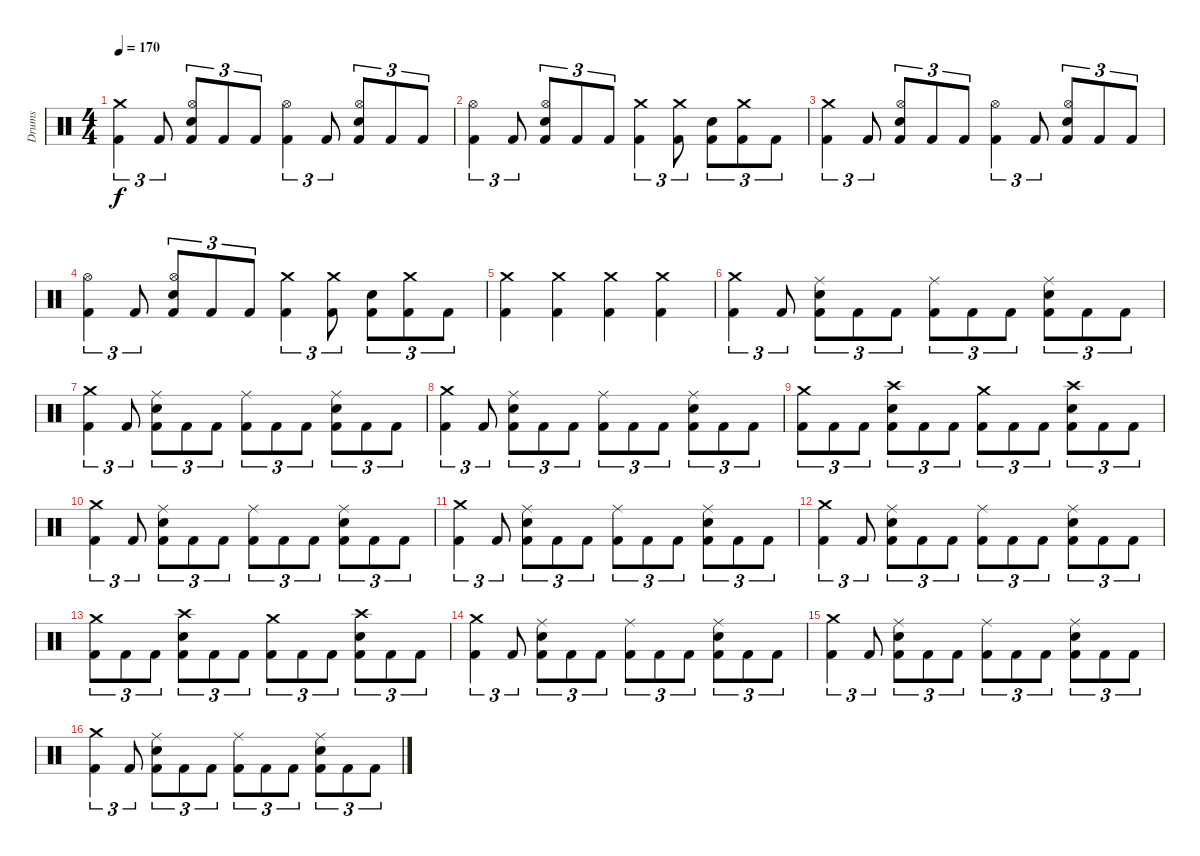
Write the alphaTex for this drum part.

\track ("Drums" "Drums") {instrument percussion}
\staff {score}
\articulation defaults
\ts (4 4)
\tempo 170
\clef neutral
\ks c
("Crash medium (hit)" "Kick (hit) 2").4{tu (3 2) dy f} "Kick (hit) 2".8{tu (3 2)} ("Hi-Hat (open)" "Snare (hit) 2" "Kick (hit) 2").8{tu (3 2)} "Kick (hit) 2".8{tu (3 2)} "Kick (hit) 2".8{tu (3 2)} ("Hi-Hat (open)" "Kick (hit) 2").4{tu (3 2)} "Kick (hit) 2".8{tu (3 2)} ("Hi-Hat (open)" "Snare (hit) 2" "Kick (hit) 2").8{tu (3 2)} "Kick (hit) 2".8{tu (3 2)} "Kick (hit) 2".8{tu (3 2)} |
("Hi-Hat (open)" "Kick (hit) 2").4{tu (3 2)} "Kick (hit) 2".8{tu (3 2)} ("Hi-Hat (open)" "Snare (hit) 2" "Kick (hit) 2").8{tu (3 2)} "Kick (hit) 2".8{tu (3 2)} "Kick (hit) 2".8{tu (3 2)} ("Crash medium (hit)" "Kick (hit) 2").4{tu (3 2)} ("Crash medium (hit)" "Kick (hit) 2").8{tu (3 2)} ("Snare (hit) 2" "Kick (hit) 2").8{tu (3 2)} ("Crash medium (hit)" "Kick (hit) 2").8{tu (3 2)} "Kick (hit) 2".8{tu (3 2)} |
("Crash medium (hit)" "Kick (hit) 2").4{tu (3 2)} "Kick (hit) 2".8{tu (3 2)} ("Hi-Hat (open)" "Snare (hit) 2" "Kick (hit) 2").8{tu (3 2)} "Kick (hit) 2".8{tu (3 2)} "Kick (hit) 2".8{tu (3 2)} ("Hi-Hat (open)" "Kick (hit) 2").4{tu (3 2)} "Kick (hit) 2".8{tu (3 2)} ("Hi-Hat (open)" "Snare (hit) 2" "Kick (hit) 2").8{tu (3 2)} "Kick (hit) 2".8{tu (3 2)} "Kick (hit) 2".8{tu (3 2)} |
("Hi-Hat (open)" "Kick (hit) 2").4{tu (3 2)} "Kick (hit) 2".8{tu (3 2)} ("Hi-Hat (open)" "Snare (hit) 2" "Kick (hit) 2").8{tu (3 2)} "Kick (hit) 2".8{tu (3 2)} "Kick (hit) 2".8{tu (3 2)} ("Crash medium (hit)" "Kick (hit) 2").4{tu (3 2)} ("Crash medium (hit)" "Kick (hit) 2").8{tu (3 2)} ("Snare (hit) 2" "Kick (hit) 2").8{tu (3 2)} ("Crash medium (hit)" "Kick (hit) 2").8{tu (3 2)} "Kick (hit) 2".8{tu (3 2)} |
("Crash medium (hit)" "Kick (hit) 2").4 ("Crash medium (hit)" "Kick (hit) 2").4 ("Crash medium (hit)" "Kick (hit) 2").4 ("Crash medium (hit)" "Kick (hit) 2").4 |
("Crash medium (hit)" "Kick (hit) 2").4{tu (3 2)} "Kick (hit) 2".8{tu (3 2)} ("Ride (middle)" "Snare (hit) 2" "Kick (hit) 2").8{tu (3 2)} "Kick (hit) 2".8{tu (3 2)} "Kick (hit) 2".8{tu (3 2)} ("Ride (middle)" "Kick (hit) 2").8{tu (3 2)} "Kick (hit) 2".8{tu (3 2)} "Kick (hit) 2".8{tu (3 2)} ("Ride (middle)" "Snare (hit) 2" "Kick (hit) 2").8{tu (3 2)} "Kick (hit) 2".8{tu (3 2)} "Kick (hit) 2".8{tu (3 2)} |
("Crash medium (hit)" "Kick (hit) 2").4{tu (3 2)} "Kick (hit) 2".8{tu (3 2)} ("Ride (middle)" "Snare (hit) 2" "Kick (hit) 2").8{tu (3 2)} "Kick (hit) 2".8{tu (3 2)} "Kick (hit) 2".8{tu (3 2)} ("Ride (middle)" "Kick (hit) 2").8{tu (3 2)} "Kick (hit) 2".8{tu (3 2)} "Kick (hit) 2".8{tu (3 2)} ("Ride (middle)" "Snare (hit) 2" "Kick (hit) 2").8{tu (3 2)} "Kick (hit) 2".8{tu (3 2)} "Kick (hit) 2".8{tu (3 2)} |
("Crash medium (hit)" "Kick (hit) 2").4{tu (3 2)} "Kick (hit) 2".8{tu (3 2)} ("Ride (middle)" "Snare (hit) 2" "Kick (hit) 2").8{tu (3 2)} "Kick (hit) 2".8{tu (3 2)} "Kick (hit) 2".8{tu (3 2)} ("Ride (middle)" "Kick (hit) 2").8{tu (3 2)} "Kick (hit) 2".8{tu (3 2)} "Kick (hit) 2".8{tu (3 2)} ("Ride (middle)" "Snare (hit) 2" "Kick (hit) 2").8{tu (3 2)} "Kick (hit) 2".8{tu (3 2)} "Kick (hit) 2".8{tu (3 2)} |
("Crash medium (hit)" "Kick (hit) 2").8{tu (3 2)} "Kick (hit) 2".8{tu (3 2)} "Kick (hit) 2".8{tu (3 2)} ("Crash high (hit)" "Snare (hit) 2" "Kick (hit) 2").8{tu (3 2)} "Kick (hit) 2".8{tu (3 2)} "Kick (hit) 2".8{tu (3 2)} ("Crash medium (hit)" "Kick (hit) 2").8{tu (3 2)} "Kick (hit) 2".8{tu (3 2)} "Kick (hit) 2".8{tu (3 2)} ("Crash high (hit)" "Snare (hit) 2" "Kick (hit) 2").8{tu (3 2)} "Kick (hit) 2".8{tu (3 2)} "Kick (hit) 2".8{tu (3 2)} |
("Crash medium (hit)" "Kick (hit) 2").4{tu (3 2)} "Kick (hit) 2".8{tu (3 2)} ("Ride (middle)" "Snare (hit) 2" "Kick (hit) 2").8{tu (3 2)} "Kick (hit) 2".8{tu (3 2)} "Kick (hit) 2".8{tu (3 2)} ("Ride (middle)" "Kick (hit) 2").8{tu (3 2)} "Kick (hit) 2".8{tu (3 2)} "Kick (hit) 2".8{tu (3 2)} ("Ride (middle)" "Snare (hit) 2" "Kick (hit) 2").8{tu (3 2)} "Kick (hit) 2".8{tu (3 2)} "Kick (hit) 2".8{tu (3 2)} |
("Crash medium (hit)" "Kick (hit) 2").4{tu (3 2)} "Kick (hit) 2".8{tu (3 2)} ("Ride (middle)" "Snare (hit) 2" "Kick (hit) 2").8{tu (3 2)} "Kick (hit) 2".8{tu (3 2)} "Kick (hit) 2".8{tu (3 2)} ("Ride (middle)" "Kick (hit) 2").8{tu (3 2)} "Kick (hit) 2".8{tu (3 2)} "Kick (hit) 2".8{tu (3 2)} ("Ride (middle)" "Snare (hit) 2" "Kick (hit) 2").8{tu (3 2)} "Kick (hit) 2".8{tu (3 2)} "Kick (hit) 2".8{tu (3 2)} |
("Crash medium (hit)" "Kick (hit) 2").4{tu (3 2)} "Kick (hit) 2".8{tu (3 2)} ("Ride (middle)" "Snare (hit) 2" "Kick (hit) 2").8{tu (3 2)} "Kick (hit) 2".8{tu (3 2)} "Kick (hit) 2".8{tu (3 2)} ("Ride (middle)" "Kick (hit) 2").8{tu (3 2)} "Kick (hit) 2".8{tu (3 2)} "Kick (hit) 2".8{tu (3 2)} ("Ride (middle)" "Snare (hit) 2" "Kick (hit) 2").8{tu (3 2)} "Kick (hit) 2".8{tu (3 2)} "Kick (hit) 2".8{tu (3 2)} |
("Crash medium (hit)" "Kick (hit) 2").8{tu (3 2)} "Kick (hit) 2".8{tu (3 2)} "Kick (hit) 2".8{tu (3 2)} ("Crash high (hit)" "Snare (hit) 2" "Kick (hit) 2").8{tu (3 2)} "Kick (hit) 2".8{tu (3 2)} "Kick (hit) 2".8{tu (3 2)} ("Crash medium (hit)" "Kick (hit) 2").8{tu (3 2)} "Kick (hit) 2".8{tu (3 2)} "Kick (hit) 2".8{tu (3 2)} ("Crash high (hit)" "Snare (hit) 2" "Kick (hit) 2").8{tu (3 2)} "Kick (hit) 2".8{tu (3 2)} "Kick (hit) 2".8{tu (3 2)} |
("Crash medium (hit)" "Kick (hit) 2").4{tu (3 2)} "Kick (hit) 2".8{tu (3 2)} ("Ride (middle)" "Snare (hit) 2" "Kick (hit) 2").8{tu (3 2)} "Kick (hit) 2".8{tu (3 2)} "Kick (hit) 2".8{tu (3 2)} ("Ride (middle)" "Kick (hit) 2").8{tu (3 2)} "Kick (hit) 2".8{tu (3 2)} "Kick (hit) 2".8{tu (3 2)} ("Ride (middle)" "Snare (hit) 2" "Kick (hit) 2").8{tu (3 2)} "Kick (hit) 2".8{tu (3 2)} "Kick (hit) 2".8{tu (3 2)} |
("Crash medium (hit)" "Kick (hit) 2").4{tu (3 2)} "Kick (hit) 2".8{tu (3 2)} ("Ride (middle)" "Snare (hit) 2" "Kick (hit) 2").8{tu (3 2)} "Kick (hit) 2".8{tu (3 2)} "Kick (hit) 2".8{tu (3 2)} ("Ride (middle)" "Kick (hit) 2").8{tu (3 2)} "Kick (hit) 2".8{tu (3 2)} "Kick (hit) 2".8{tu (3 2)} ("Ride (middle)" "Snare (hit) 2" "Kick (hit) 2").8{tu (3 2)} "Kick (hit) 2".8{tu (3 2)} "Kick (hit) 2".8{tu (3 2)} |
("Crash medium (hit)" "Kick (hit) 2").4{tu (3 2)} "Kick (hit) 2".8{tu (3 2)} ("Ride (middle)" "Snare (hit) 2" "Kick (hit) 2").8{tu (3 2)} "Kick (hit) 2".8{tu (3 2)} "Kick (hit) 2".8{tu (3 2)} ("Ride (middle)" "Kick (hit) 2").8{tu (3 2)} "Kick (hit) 2".8{tu (3 2)} "Kick (hit) 2".8{tu (3 2)} ("Ride (middle)" "Snare (hit) 2" "Kick (hit) 2").8{tu (3 2)} "Kick (hit) 2".8{tu (3 2)} "Kick (hit) 2".8{tu (3 2)}
